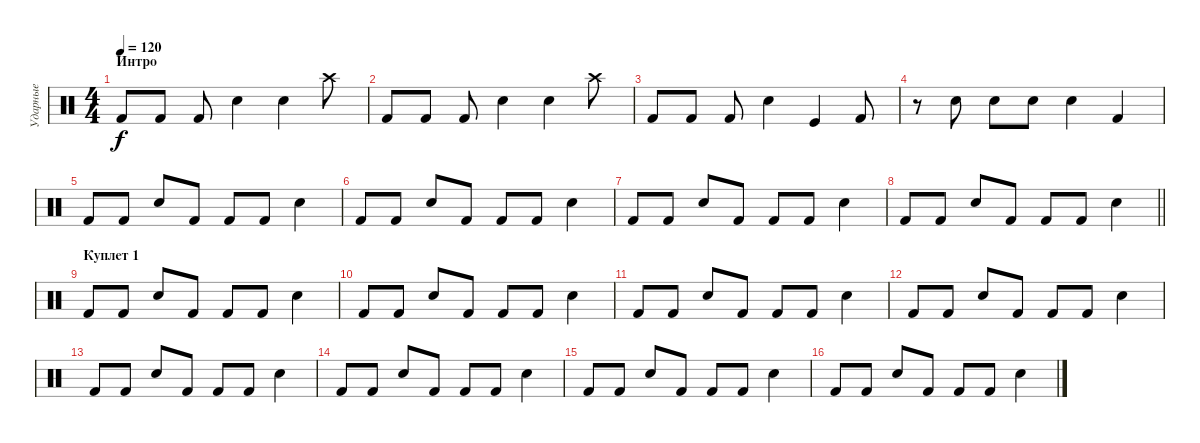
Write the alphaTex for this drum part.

\track ("Ударные" "Ударные") {instrument percussion}
\staff {score}
\articulation defaults
\ts (4 4)
\section ("" "Интро")
\tempo 120
\clef neutral
\ks c "Kick (hit) 2".8{dy f} "Kick (hit) 2".8 "Kick (hit) 2".8 "Electric Snare (hit)".4 "Electric Snare (hit)".4 "Crash high (hit)".8
|
"Kick (hit) 2".8 "Kick (hit) 2".8 "Kick (hit) 2".8 "Electric Snare (hit)".4 "Electric Snare (hit)".4 "Crash high (hit)".8 |
"Kick (hit) 2".8 "Kick (hit) 2".8 "Kick (hit) 2".8 "Electric Snare (hit)".4 "Kick (hit)".4 "Kick (hit) 2".8 |
r.8 "Electric Snare (hit)".8 "Electric Snare (hit)".8 "Electric Snare (hit)".8 "Electric Snare (hit)".4 "Kick (hit) 2".4 |
"Kick (hit) 2".8 "Kick (hit) 2".8 "Electric Snare (hit)".8 "Kick (hit) 2".8 "Kick (hit) 2".8 "Kick (hit) 2".8 "Electric Snare (hit)".4 |
"Kick (hit) 2".8 "Kick (hit) 2".8 "Electric Snare (hit)".8 "Kick (hit) 2".8 "Kick (hit) 2".8 "Kick (hit) 2".8 "Electric Snare (hit)".4 |
"Kick (hit) 2".8 "Kick (hit) 2".8 "Electric Snare (hit)".8 "Kick (hit) 2".8 "Kick (hit) 2".8 "Kick (hit) 2".8 "Electric Snare (hit)".4 |
\barLineRight lightlight "Kick (hit) 2".8 "Kick (hit) 2".8 "Electric Snare (hit)".8 "Kick (hit) 2".8 "Kick (hit) 2".8 "Kick (hit) 2".8 "Electric Snare (hit)".4
|
\section ("" "Куплет 1")
"Kick (hit) 2".8 "Kick (hit) 2".8 "Electric Snare (hit)".8 "Kick (hit) 2".8 "Kick (hit) 2".8 "Kick (hit) 2".8 "Electric Snare (hit)".4 |
"Kick (hit) 2".8 "Kick (hit) 2".8 "Electric Snare (hit)".8 "Kick (hit) 2".8 "Kick (hit) 2".8 "Kick (hit) 2".8 "Electric Snare (hit)".4 |
"Kick (hit) 2".8 "Kick (hit) 2".8 "Electric Snare (hit)".8 "Kick (hit) 2".8 "Kick (hit) 2".8 "Kick (hit) 2".8 "Electric Snare (hit)".4 |
"Kick (hit) 2".8 "Kick (hit) 2".8 "Electric Snare (hit)".8 "Kick (hit) 2".8 "Kick (hit) 2".8 "Kick (hit) 2".8 "Electric Snare (hit)".4 |
"Kick (hit) 2".8 "Kick (hit) 2".8 "Electric Snare (hit)".8 "Kick (hit) 2".8 "Kick (hit) 2".8 "Kick (hit) 2".8 "Electric Snare (hit)".4 |
"Kick (hit) 2".8 "Kick (hit) 2".8 "Electric Snare (hit)".8 "Kick (hit) 2".8 "Kick (hit) 2".8 "Kick (hit) 2".8 "Electric Snare (hit)".4 |
"Kick (hit) 2".8 "Kick (hit) 2".8 "Electric Snare (hit)".8 "Kick (hit) 2".8 "Kick (hit) 2".8 "Kick (hit) 2".8 "Electric Snare (hit)".4 |
"Kick (hit) 2".8 "Kick (hit) 2".8 "Electric Snare (hit)".8 "Kick (hit) 2".8 "Kick (hit) 2".8 "Kick (hit) 2".8 "Electric Snare (hit)".4
